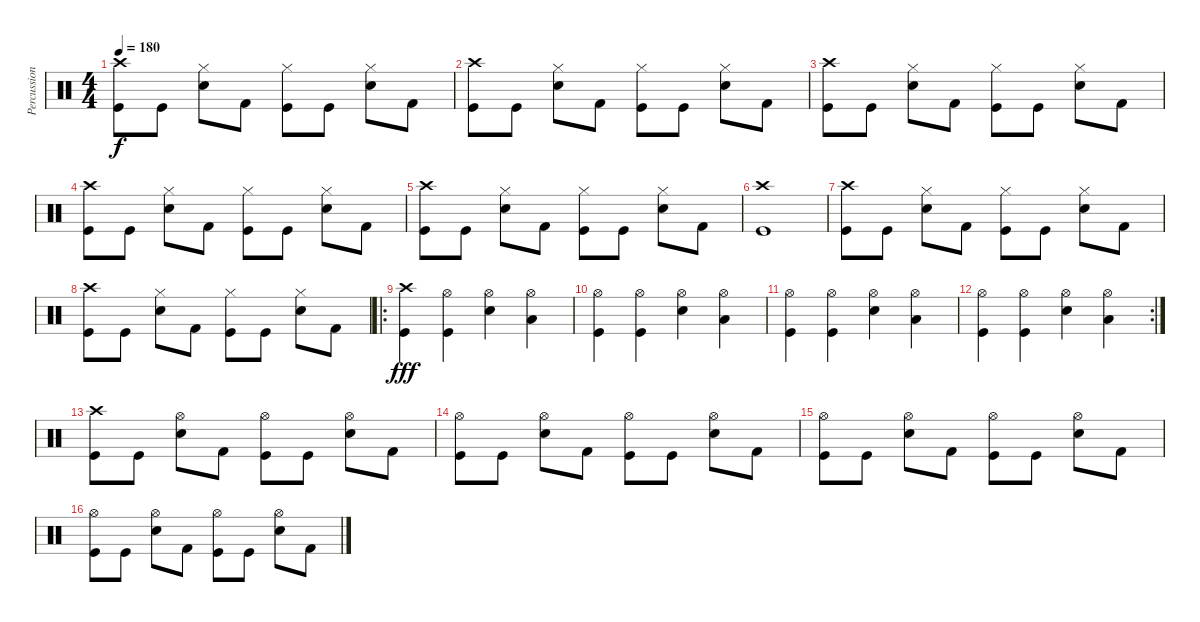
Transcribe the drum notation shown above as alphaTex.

\track ("Percussions" "Percussion") {instrument percussion}
\staff {score}
\articulation defaults
\ts (4 4)
\tempo 180
\clef neutral
\ks c
("Crash high (hit)" "Kick (hit)").8{dy f} "Kick (hit)".8 ("Hi-Hat (closed)" "Electric Snare (hit)").8 "Kick (hit) 2".8 ("Hi-Hat (closed)" "Kick (hit)").8 "Kick (hit)".8 ("Hi-Hat (closed)" "Electric Snare (hit)").8 "Kick (hit) 2".8 |
("Crash high (hit)" "Kick (hit)").8 "Kick (hit)".8 ("Hi-Hat (closed)" "Electric Snare (hit)").8 "Kick (hit) 2".8 ("Hi-Hat (closed)" "Kick (hit)").8 "Kick (hit)".8 ("Hi-Hat (closed)" "Electric Snare (hit)").8 "Kick (hit) 2".8 |
("Crash high (hit)" "Kick (hit)").8 "Kick (hit)".8 ("Hi-Hat (closed)" "Electric Snare (hit)").8 "Kick (hit) 2".8 ("Hi-Hat (closed)" "Kick (hit)").8 "Kick (hit)".8 ("Hi-Hat (closed)" "Electric Snare (hit)").8 "Kick (hit) 2".8 |
("Crash high (hit)" "Kick (hit)").8 "Kick (hit)".8 ("Hi-Hat (closed)" "Electric Snare (hit)").8 "Kick (hit) 2".8 ("Hi-Hat (closed)" "Kick (hit)").8 "Kick (hit)".8 ("Hi-Hat (closed)" "Electric Snare (hit)").8 "Kick (hit) 2".8 |
("Crash high (hit)" "Kick (hit)").8 "Kick (hit)".8 ("Hi-Hat (closed)" "Electric Snare (hit)").8 "Kick (hit) 2".8 ("Hi-Hat (closed)" "Kick (hit)").8 "Kick (hit)".8 ("Hi-Hat (closed)" "Electric Snare (hit)").8 "Kick (hit) 2".8 |
("Crash high (hit)" "Kick (hit)").1 |
("Crash high (hit)" "Kick (hit)").8 "Kick (hit)".8 ("Hi-Hat (closed)" "Electric Snare (hit)").8 "Kick (hit) 2".8 ("Hi-Hat (closed)" "Kick (hit)").8 "Kick (hit)".8 ("Hi-Hat (closed)" "Electric Snare (hit)").8 "Kick (hit) 2".8 |
("Crash high (hit)" "Kick (hit)").8 "Kick (hit)".8 ("Hi-Hat (closed)" "Electric Snare (hit)").8 "Kick (hit) 2".8 ("Hi-Hat (closed)" "Kick (hit)").8 "Kick (hit)".8 ("Hi-Hat (closed)" "Electric Snare (hit)").8 "Kick (hit) 2".8 |
\ro
("Crash high (hit)" "Kick (hit)").4{dy fff} ("Hi-Hat (open)" "Kick (hit)").4 ("Hi-Hat (open)" "Electric Snare (hit)").4 ("Hi-Hat (open)" "Low Tom (hit)").4 |
("Hi-Hat (open)" "Kick (hit)").4 ("Hi-Hat (open)" "Kick (hit)").4 ("Hi-Hat (open)" "Electric Snare (hit)").4 ("Hi-Hat (open)" "Low Tom (hit)").4 |
("Hi-Hat (open)" "Kick (hit)").4 ("Hi-Hat (open)" "Kick (hit)").4 ("Hi-Hat (open)" "Electric Snare (hit)").4 ("Hi-Hat (open)" "Low Tom (hit)").4 |
\rc 2
("Hi-Hat (open)" "Kick (hit)").4 ("Hi-Hat (open)" "Kick (hit)").4 ("Hi-Hat (open)" "Electric Snare (hit)").4 ("Hi-Hat (open)" "Low Tom (hit)").4 |
("Crash high (hit)" "Kick (hit)").8 "Kick (hit)".8 ("Hi-Hat (open)" "Electric Snare (hit)").8 "Kick (hit) 2".8 ("Hi-Hat (open)" "Kick (hit)").8 "Kick (hit)".8 ("Hi-Hat (open)" "Electric Snare (hit)").8 "Kick (hit) 2".8 |
("Hi-Hat (open)" "Kick (hit)").8 "Kick (hit)".8 ("Hi-Hat (open)" "Electric Snare (hit)").8 "Kick (hit) 2".8 ("Hi-Hat (open)" "Kick (hit)").8 "Kick (hit)".8 ("Hi-Hat (open)" "Electric Snare (hit)").8 "Kick (hit) 2".8 |
("Hi-Hat (open)" "Kick (hit)").8 "Kick (hit)".8 ("Hi-Hat (open)" "Electric Snare (hit)").8 "Kick (hit) 2".8 ("Hi-Hat (open)" "Kick (hit)").8 "Kick (hit)".8 ("Hi-Hat (open)" "Electric Snare (hit)").8 "Kick (hit) 2".8 |
("Hi-Hat (open)" "Kick (hit)").8 "Kick (hit)".8 ("Hi-Hat (open)" "Electric Snare (hit)").8 "Kick (hit) 2".8 ("Hi-Hat (open)" "Kick (hit)").8 "Kick (hit)".8 ("Hi-Hat (open)" "Electric Snare (hit)").8 "Kick (hit) 2".8
